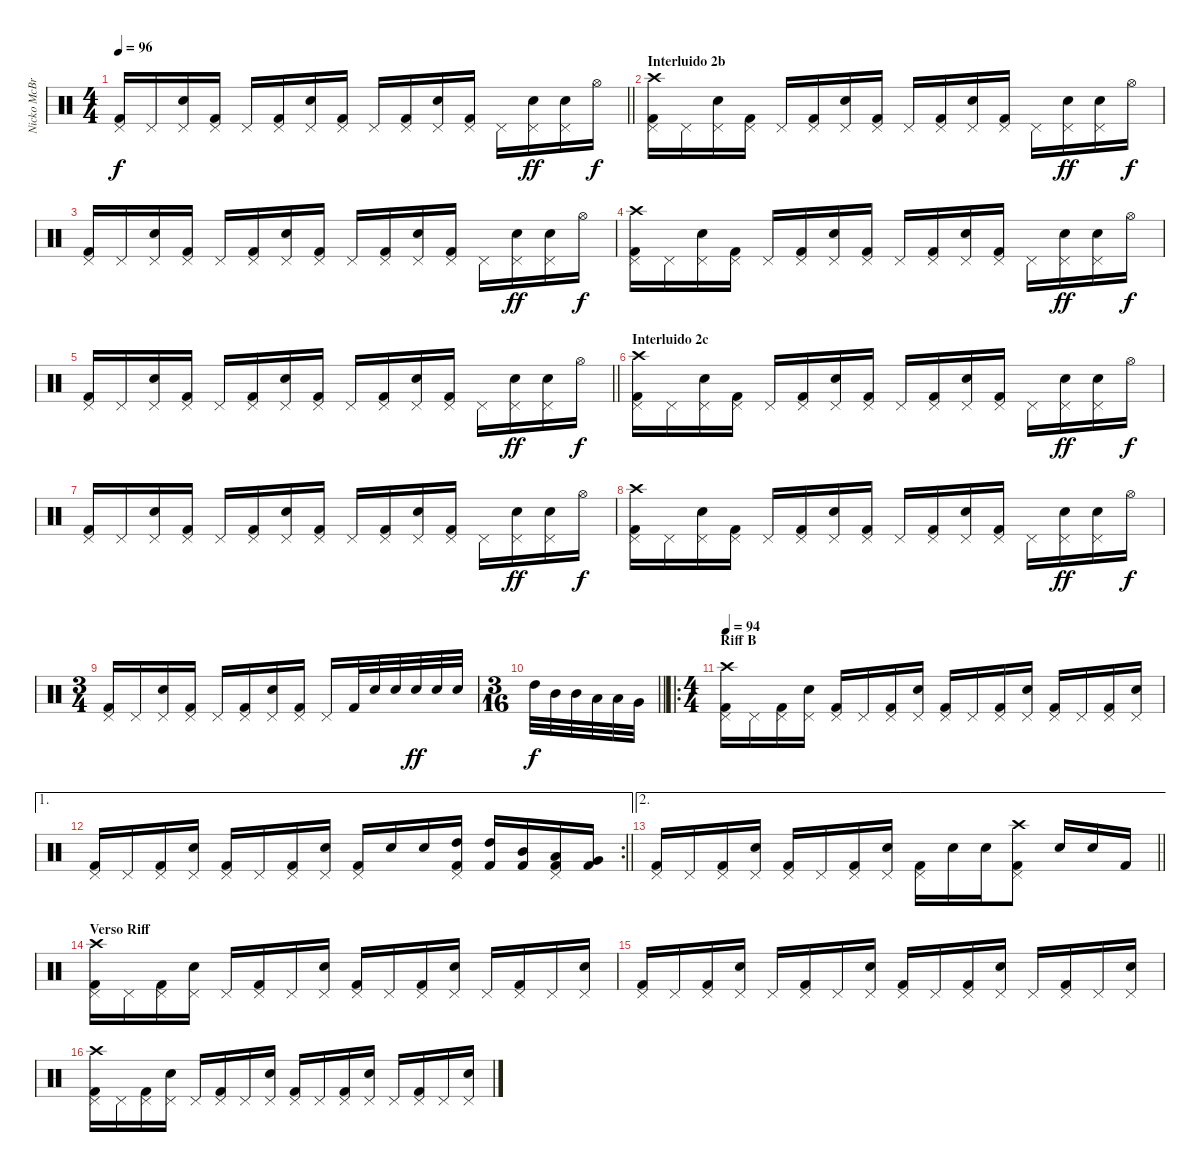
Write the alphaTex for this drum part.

\track ("Nicko McBrain" "Nicko McBr") {instrument percussion}
\staff {score}
\articulation defaults
\ts (4 4)
\tempo 96
\clef neutral
\barLineRight lightlight
\ks c
("Kick (hit) 2" "Pedal Hi-Hat (hit)").16{dy f} "Pedal Hi-Hat (hit)".16 ("Snare (hit) 2" "Pedal Hi-Hat (hit)").16 ("Kick (hit) 2" "Pedal Hi-Hat (hit)").16 "Pedal Hi-Hat (hit)".16 ("Kick (hit) 2" "Pedal Hi-Hat (hit)").16 ("Snare (hit) 2" "Pedal Hi-Hat (hit)").16 ("Kick (hit) 2" "Pedal Hi-Hat (hit)").16 "Pedal Hi-Hat (hit)".16 ("Kick (hit) 2" "Pedal Hi-Hat (hit)").16 ("Snare (hit) 2" "Pedal Hi-Hat (hit)").16 ("Kick (hit) 2" "Pedal Hi-Hat (hit)").16 "Pedal Hi-Hat (hit)".16 ("Snare (hit) 2" "Pedal Hi-Hat (hit)").16{dy ff} ("Snare (hit) 2" "Pedal Hi-Hat (hit)").16 "Hi-Hat (open)".16{dy f} |
\section ("" "Interluido 2b")
("Kick (hit) 2" "Pedal Hi-Hat (hit)" "Crash high (hit)").16 "Pedal Hi-Hat (hit)".16 ("Snare (hit) 2" "Pedal Hi-Hat (hit)").16 ("Kick (hit) 2" "Pedal Hi-Hat (hit)").16 "Pedal Hi-Hat (hit)".16 ("Kick (hit) 2" "Pedal Hi-Hat (hit)").16 ("Snare (hit) 2" "Pedal Hi-Hat (hit)").16 ("Kick (hit) 2" "Pedal Hi-Hat (hit)").16 "Pedal Hi-Hat (hit)".16 ("Kick (hit) 2" "Pedal Hi-Hat (hit)").16 ("Snare (hit) 2" "Pedal Hi-Hat (hit)").16 ("Kick (hit) 2" "Pedal Hi-Hat (hit)").16 "Pedal Hi-Hat (hit)".16 ("Snare (hit) 2" "Pedal Hi-Hat (hit)").16{dy ff} ("Snare (hit) 2" "Pedal Hi-Hat (hit)").16 "Hi-Hat (open)".16{dy f} |
("Kick (hit) 2" "Pedal Hi-Hat (hit)").16 "Pedal Hi-Hat (hit)".16 ("Snare (hit) 2" "Pedal Hi-Hat (hit)").16 ("Kick (hit) 2" "Pedal Hi-Hat (hit)").16 "Pedal Hi-Hat (hit)".16 ("Kick (hit) 2" "Pedal Hi-Hat (hit)").16 ("Snare (hit) 2" "Pedal Hi-Hat (hit)").16 ("Kick (hit) 2" "Pedal Hi-Hat (hit)").16 "Pedal Hi-Hat (hit)".16 ("Kick (hit) 2" "Pedal Hi-Hat (hit)").16 ("Snare (hit) 2" "Pedal Hi-Hat (hit)").16 ("Kick (hit) 2" "Pedal Hi-Hat (hit)").16 "Pedal Hi-Hat (hit)".16 ("Snare (hit) 2" "Pedal Hi-Hat (hit)").16{dy ff} ("Snare (hit) 2" "Pedal Hi-Hat (hit)").16 "Hi-Hat (open)".16{dy f} |
("Kick (hit) 2" "Pedal Hi-Hat (hit)" "Crash high (hit)").16 "Pedal Hi-Hat (hit)".16 ("Snare (hit) 2" "Pedal Hi-Hat (hit)").16 ("Kick (hit) 2" "Pedal Hi-Hat (hit)").16 "Pedal Hi-Hat (hit)".16 ("Kick (hit) 2" "Pedal Hi-Hat (hit)").16 ("Snare (hit) 2" "Pedal Hi-Hat (hit)").16 ("Kick (hit) 2" "Pedal Hi-Hat (hit)").16 "Pedal Hi-Hat (hit)".16 ("Kick (hit) 2" "Pedal Hi-Hat (hit)").16 ("Snare (hit) 2" "Pedal Hi-Hat (hit)").16 ("Kick (hit) 2" "Pedal Hi-Hat (hit)").16 "Pedal Hi-Hat (hit)".16 ("Snare (hit) 2" "Pedal Hi-Hat (hit)").16{dy ff} ("Snare (hit) 2" "Pedal Hi-Hat (hit)").16 "Hi-Hat (open)".16{dy f} |
\barLineRight lightlight
("Kick (hit) 2" "Pedal Hi-Hat (hit)").16 "Pedal Hi-Hat (hit)".16 ("Snare (hit) 2" "Pedal Hi-Hat (hit)").16 ("Kick (hit) 2" "Pedal Hi-Hat (hit)").16 "Pedal Hi-Hat (hit)".16 ("Kick (hit) 2" "Pedal Hi-Hat (hit)").16 ("Snare (hit) 2" "Pedal Hi-Hat (hit)").16 ("Kick (hit) 2" "Pedal Hi-Hat (hit)").16 "Pedal Hi-Hat (hit)".16 ("Kick (hit) 2" "Pedal Hi-Hat (hit)").16 ("Snare (hit) 2" "Pedal Hi-Hat (hit)").16 ("Kick (hit) 2" "Pedal Hi-Hat (hit)").16 "Pedal Hi-Hat (hit)".16 ("Snare (hit) 2" "Pedal Hi-Hat (hit)").16{dy ff} ("Snare (hit) 2" "Pedal Hi-Hat (hit)").16 "Hi-Hat (open)".16{dy f} |
\section ("" "Interluido 2c")
("Kick (hit) 2" "Pedal Hi-Hat (hit)" "Crash high (hit)").16 "Pedal Hi-Hat (hit)".16 ("Snare (hit) 2" "Pedal Hi-Hat (hit)").16 ("Kick (hit) 2" "Pedal Hi-Hat (hit)").16 "Pedal Hi-Hat (hit)".16 ("Kick (hit) 2" "Pedal Hi-Hat (hit)").16 ("Snare (hit) 2" "Pedal Hi-Hat (hit)").16 ("Kick (hit) 2" "Pedal Hi-Hat (hit)").16 "Pedal Hi-Hat (hit)".16 ("Kick (hit) 2" "Pedal Hi-Hat (hit)").16 ("Snare (hit) 2" "Pedal Hi-Hat (hit)").16 ("Kick (hit) 2" "Pedal Hi-Hat (hit)").16 "Pedal Hi-Hat (hit)".16 ("Snare (hit) 2" "Pedal Hi-Hat (hit)").16{dy ff} ("Snare (hit) 2" "Pedal Hi-Hat (hit)").16 "Hi-Hat (open)".16{dy f} |
("Kick (hit) 2" "Pedal Hi-Hat (hit)").16 "Pedal Hi-Hat (hit)".16 ("Snare (hit) 2" "Pedal Hi-Hat (hit)").16 ("Kick (hit) 2" "Pedal Hi-Hat (hit)").16 "Pedal Hi-Hat (hit)".16 ("Kick (hit) 2" "Pedal Hi-Hat (hit)").16 ("Snare (hit) 2" "Pedal Hi-Hat (hit)").16 ("Kick (hit) 2" "Pedal Hi-Hat (hit)").16 "Pedal Hi-Hat (hit)".16 ("Kick (hit) 2" "Pedal Hi-Hat (hit)").16 ("Snare (hit) 2" "Pedal Hi-Hat (hit)").16 ("Kick (hit) 2" "Pedal Hi-Hat (hit)").16 "Pedal Hi-Hat (hit)".16 ("Snare (hit) 2" "Pedal Hi-Hat (hit)").16{dy ff} ("Snare (hit) 2" "Pedal Hi-Hat (hit)").16 "Hi-Hat (open)".16{dy f} |
("Kick (hit) 2" "Pedal Hi-Hat (hit)" "Crash high (hit)").16 "Pedal Hi-Hat (hit)".16 ("Snare (hit) 2" "Pedal Hi-Hat (hit)").16 ("Kick (hit) 2" "Pedal Hi-Hat (hit)").16 "Pedal Hi-Hat (hit)".16 ("Kick (hit) 2" "Pedal Hi-Hat (hit)").16 ("Snare (hit) 2" "Pedal Hi-Hat (hit)").16 ("Kick (hit) 2" "Pedal Hi-Hat (hit)").16 "Pedal Hi-Hat (hit)".16 ("Kick (hit) 2" "Pedal Hi-Hat (hit)").16 ("Snare (hit) 2" "Pedal Hi-Hat (hit)").16 ("Kick (hit) 2" "Pedal Hi-Hat (hit)").16 "Pedal Hi-Hat (hit)".16 ("Snare (hit) 2" "Pedal Hi-Hat (hit)").16{dy ff} ("Snare (hit) 2" "Pedal Hi-Hat (hit)").16 "Hi-Hat (open)".16{dy f} |
\ts (3 4)
("Kick (hit) 2" "Pedal Hi-Hat (hit)").16 "Pedal Hi-Hat (hit)".16 ("Snare (hit) 2" "Pedal Hi-Hat (hit)").16 ("Kick (hit) 2" "Pedal Hi-Hat (hit)").16 "Pedal Hi-Hat (hit)".16 ("Kick (hit) 2" "Pedal Hi-Hat (hit)").16 ("Snare (hit) 2" "Pedal Hi-Hat (hit)").16 ("Kick (hit) 2" "Pedal Hi-Hat (hit)").16 "Pedal Hi-Hat (hit)".16 "Kick (hit) 2".32 "Snare (hit) 2".32 "Snare (hit) 2".32 "Snare (hit) 2".32{dy ff} "Snare (hit) 2".32 "Snare (hit) 2".32 |
\ts (3 16)
\barLineRight lightlight "High Tom (hit)".32{dy f} "Mid Tom (hit)".32 "Mid Tom (hit)".32 "Low Tom (hit)".32 "Low Tom (hit)".32 "Very Low Tom (hit)".32
|
\ro
\ts (4 4)
\section ("" "Riff B")
\tempo 94
("Kick (hit) 2" "Pedal Hi-Hat (hit)" "Crash high (hit)").16 "Pedal Hi-Hat (hit)".16 ("Kick (hit) 2" "Pedal Hi-Hat (hit)").16 ("Snare (hit) 2" "Pedal Hi-Hat (hit)").16 ("Kick (hit) 2" "Pedal Hi-Hat (hit)").16 "Pedal Hi-Hat (hit)".16 ("Kick (hit) 2" "Pedal Hi-Hat (hit)").16 ("Snare (hit) 2" "Pedal Hi-Hat (hit)").16 ("Kick (hit) 2" "Pedal Hi-Hat (hit)").16 "Pedal Hi-Hat (hit)".16 ("Kick (hit) 2" "Pedal Hi-Hat (hit)").16 ("Snare (hit) 2" "Pedal Hi-Hat (hit)").16 ("Kick (hit) 2" "Pedal Hi-Hat (hit)").16 "Pedal Hi-Hat (hit)".16 ("Kick (hit) 2" "Pedal Hi-Hat (hit)").16 ("Snare (hit) 2" "Pedal Hi-Hat (hit)").16 |
\ae 1
\rc 2
\barLineRight lightlight
("Kick (hit) 2" "Pedal Hi-Hat (hit)").16 "Pedal Hi-Hat (hit)".16 ("Kick (hit) 2" "Pedal Hi-Hat (hit)").16 ("Snare (hit) 2" "Pedal Hi-Hat (hit)").16 ("Kick (hit) 2" "Pedal Hi-Hat (hit)").16 "Pedal Hi-Hat (hit)".16 ("Kick (hit) 2" "Pedal Hi-Hat (hit)").16 ("Snare (hit) 2" "Pedal Hi-Hat (hit)").16 ("Kick (hit) 2" "Pedal Hi-Hat (hit)").16 "Snare (hit) 2".16 "Snare (hit) 2".16 ("Kick (hit) 2" "Pedal Hi-Hat (hit)" "High Tom (hit)").16 ("Kick (hit) 2" "High Tom (hit)").16 ("Kick (hit) 2" "Mid Tom (hit)").16 ("Kick (hit) 2" "Pedal Hi-Hat (hit)" "Low Tom (hit)").16 ("Kick (hit) 2" "Very Low Tom (hit)").16 |
\ae 2
\barLineRight lightlight
("Kick (hit) 2" "Pedal Hi-Hat (hit)").16 "Pedal Hi-Hat (hit)".16 ("Kick (hit) 2" "Pedal Hi-Hat (hit)").16 ("Snare (hit) 2" "Pedal Hi-Hat (hit)").16 ("Kick (hit) 2" "Pedal Hi-Hat (hit)").16 "Pedal Hi-Hat (hit)".16 ("Kick (hit) 2" "Pedal Hi-Hat (hit)").16 ("Snare (hit) 2" "Pedal Hi-Hat (hit)").16 ("Kick (hit) 2" "Pedal Hi-Hat (hit)").16 "Snare (hit) 2".16 "Snare (hit) 2".16 ("Kick (hit) 2" "Pedal Hi-Hat (hit)" "Crash high (hit)").8 "Snare (hit) 2".16 "Snare (hit) 2".16 "Kick (hit) 2".16 |
\section ("" "Verso Riff")
("Kick (hit) 2" "Pedal Hi-Hat (hit)" "Crash high (hit)").16 "Pedal Hi-Hat (hit)".16 ("Kick (hit) 2" "Pedal Hi-Hat (hit)").16 ("Snare (hit) 2" "Pedal Hi-Hat (hit)").16 "Pedal Hi-Hat (hit)".16 ("Kick (hit) 2" "Pedal Hi-Hat (hit)").16 "Pedal Hi-Hat (hit)".16 ("Snare (hit) 2" "Pedal Hi-Hat (hit)").16 ("Kick (hit) 2" "Pedal Hi-Hat (hit)").16 "Pedal Hi-Hat (hit)".16 ("Kick (hit) 2" "Pedal Hi-Hat (hit)").16 ("Snare (hit) 2" "Pedal Hi-Hat (hit)").16 "Pedal Hi-Hat (hit)".16 ("Kick (hit) 2" "Pedal Hi-Hat (hit)").16 "Pedal Hi-Hat (hit)".16 ("Snare (hit) 2" "Pedal Hi-Hat (hit)").16 |
("Kick (hit) 2" "Pedal Hi-Hat (hit)").16 "Pedal Hi-Hat (hit)".16 ("Kick (hit) 2" "Pedal Hi-Hat (hit)").16 ("Snare (hit) 2" "Pedal Hi-Hat (hit)").16 "Pedal Hi-Hat (hit)".16 ("Kick (hit) 2" "Pedal Hi-Hat (hit)").16 "Pedal Hi-Hat (hit)".16 ("Snare (hit) 2" "Pedal Hi-Hat (hit)").16 ("Kick (hit) 2" "Pedal Hi-Hat (hit)").16 "Pedal Hi-Hat (hit)".16 ("Kick (hit) 2" "Pedal Hi-Hat (hit)").16 ("Snare (hit) 2" "Pedal Hi-Hat (hit)").16 "Pedal Hi-Hat (hit)".16 ("Kick (hit) 2" "Pedal Hi-Hat (hit)").16 "Pedal Hi-Hat (hit)".16 ("Snare (hit) 2" "Pedal Hi-Hat (hit)").16 |
("Kick (hit) 2" "Pedal Hi-Hat (hit)" "Crash high (hit)").16 "Pedal Hi-Hat (hit)".16 ("Kick (hit) 2" "Pedal Hi-Hat (hit)").16 ("Snare (hit) 2" "Pedal Hi-Hat (hit)").16 "Pedal Hi-Hat (hit)".16 ("Kick (hit) 2" "Pedal Hi-Hat (hit)").16 "Pedal Hi-Hat (hit)".16 ("Snare (hit) 2" "Pedal Hi-Hat (hit)").16 ("Kick (hit) 2" "Pedal Hi-Hat (hit)").16 "Pedal Hi-Hat (hit)".16 ("Kick (hit) 2" "Pedal Hi-Hat (hit)").16 ("Snare (hit) 2" "Pedal Hi-Hat (hit)").16 "Pedal Hi-Hat (hit)".16 ("Kick (hit) 2" "Pedal Hi-Hat (hit)").16 "Pedal Hi-Hat (hit)".16 ("Snare (hit) 2" "Pedal Hi-Hat (hit)").16
